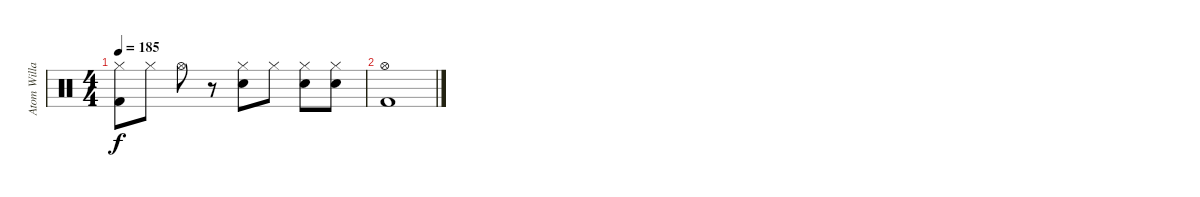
\track ("Atom Willard Drums" "Atom Willa") {instrument percussion}
\staff {score}
\articulation defaults
\ts (4 4)
\tempo 185
\clef neutral
\ks c
("Hi-Hat (closed)" "Kick (hit) 2").8{dy f} "Hi-Hat (closed)".8 "Hi-Hat (open)".8 r.8 ("Hi-Hat (closed)" "Electric Snare (hit)").8 "Hi-Hat (closed)".8 ("Hi-Hat (closed)" "Electric Snare (hit)").8 ("Hi-Hat (closed)" "Electric Snare (hit)").8 |
("Hi-Hat (open)" "Kick (hit) 2").1
